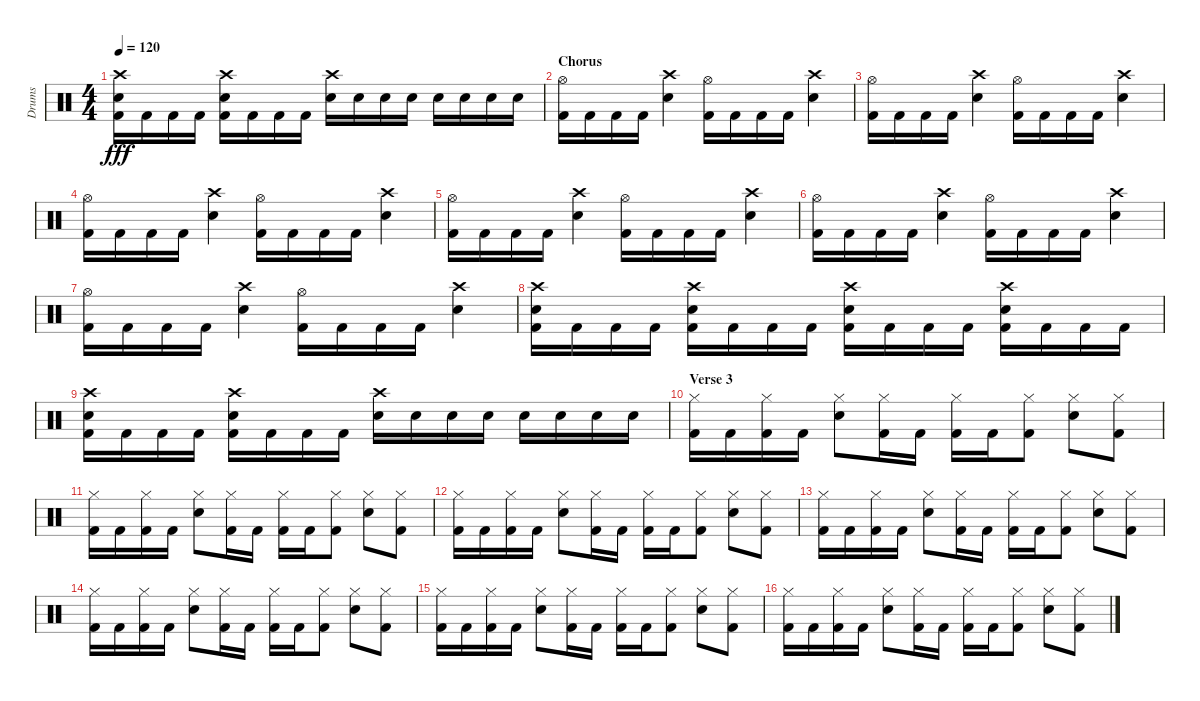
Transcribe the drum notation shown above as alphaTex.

\track ("Drums" "Drums") {instrument percussion}
\staff {score}
\articulation defaults
\ts (4 4)
\tempo 120
\clef neutral
\ks c
("Crash high (hit)" "Electric Snare (hit)" "Kick (hit) 2").16{dy fff} "Kick (hit) 2".16 "Kick (hit) 2".16 "Kick (hit) 2".16 ("Crash high (hit)" "Electric Snare (hit)" "Kick (hit) 2").16 "Kick (hit) 2".16 "Kick (hit) 2".16 "Kick (hit) 2".16 ("Crash high (hit)" "Electric Snare (hit)").16 "Electric Snare (hit)".16 "Electric Snare (hit)".16 "Electric Snare (hit)".16 "Electric Snare (hit)".16 "Electric Snare (hit)".16 "Electric Snare (hit)".16 "Electric Snare (hit)".16 |
\section ("" "Chorus")
("Hi-Hat (open)" "Kick (hit) 2").16 "Kick (hit) 2".16 "Kick (hit) 2".16 "Kick (hit) 2".16 ("Crash high (hit)" "Electric Snare (hit)").4 ("Hi-Hat (open)" "Kick (hit) 2").16 "Kick (hit) 2".16 "Kick (hit) 2".16 "Kick (hit) 2".16 ("Crash high (hit)" "Electric Snare (hit)").4 |
("Hi-Hat (open)" "Kick (hit) 2").16 "Kick (hit) 2".16 "Kick (hit) 2".16 "Kick (hit) 2".16 ("Crash high (hit)" "Electric Snare (hit)").4 ("Hi-Hat (open)" "Kick (hit) 2").16 "Kick (hit) 2".16 "Kick (hit) 2".16 "Kick (hit) 2".16 ("Crash high (hit)" "Electric Snare (hit)").4 |
("Hi-Hat (open)" "Kick (hit) 2").16 "Kick (hit) 2".16 "Kick (hit) 2".16 "Kick (hit) 2".16 ("Crash high (hit)" "Electric Snare (hit)").4 ("Hi-Hat (open)" "Kick (hit) 2").16 "Kick (hit) 2".16 "Kick (hit) 2".16 "Kick (hit) 2".16 ("Crash high (hit)" "Electric Snare (hit)").4 |
("Hi-Hat (open)" "Kick (hit) 2").16 "Kick (hit) 2".16 "Kick (hit) 2".16 "Kick (hit) 2".16 ("Crash high (hit)" "Electric Snare (hit)").4 ("Hi-Hat (open)" "Kick (hit) 2").16 "Kick (hit) 2".16 "Kick (hit) 2".16 "Kick (hit) 2".16 ("Crash high (hit)" "Electric Snare (hit)").4 |
("Hi-Hat (open)" "Kick (hit) 2").16 "Kick (hit) 2".16 "Kick (hit) 2".16 "Kick (hit) 2".16 ("Crash high (hit)" "Electric Snare (hit)").4 ("Hi-Hat (open)" "Kick (hit) 2").16 "Kick (hit) 2".16 "Kick (hit) 2".16 "Kick (hit) 2".16 ("Crash high (hit)" "Electric Snare (hit)").4 |
("Hi-Hat (open)" "Kick (hit) 2").16 "Kick (hit) 2".16 "Kick (hit) 2".16 "Kick (hit) 2".16 ("Crash high (hit)" "Electric Snare (hit)").4 ("Hi-Hat (open)" "Kick (hit) 2").16 "Kick (hit) 2".16 "Kick (hit) 2".16 "Kick (hit) 2".16 ("Crash high (hit)" "Electric Snare (hit)").4 |
("Crash high (hit)" "Electric Snare (hit)" "Kick (hit) 2").16 "Kick (hit) 2".16 "Kick (hit) 2".16 "Kick (hit) 2".16 ("Crash high (hit)" "Electric Snare (hit)" "Kick (hit) 2").16 "Kick (hit) 2".16 "Kick (hit) 2".16 "Kick (hit) 2".16 ("Crash high (hit)" "Electric Snare (hit)" "Kick (hit) 2").16 "Kick (hit) 2".16 "Kick (hit) 2".16 "Kick (hit) 2".16 ("Crash high (hit)" "Electric Snare (hit)" "Kick (hit) 2").16 "Kick (hit) 2".16 "Kick (hit) 2".16 "Kick (hit) 2".16 |
("Crash high (hit)" "Electric Snare (hit)" "Kick (hit) 2").16 "Kick (hit) 2".16 "Kick (hit) 2".16 "Kick (hit) 2".16 ("Crash high (hit)" "Electric Snare (hit)" "Kick (hit) 2").16 "Kick (hit) 2".16 "Kick (hit) 2".16 "Kick (hit) 2".16 ("Crash high (hit)" "Electric Snare (hit)").16 "Electric Snare (hit)".16 "Electric Snare (hit)".16 "Electric Snare (hit)".16 "Electric Snare (hit)".16 "Electric Snare (hit)".16 "Electric Snare (hit)".16 "Electric Snare (hit)".16 |
\section ("" "Verse 3")
("Hi-Hat (closed)" "Kick (hit) 2").16 "Kick (hit) 2".16 ("Hi-Hat (closed)" "Kick (hit) 2").16 "Kick (hit) 2".16 ("Hi-Hat (closed)" "Electric Snare (hit)").8 ("Hi-Hat (closed)" "Kick (hit) 2").16 "Kick (hit) 2".16 ("Hi-Hat (closed)" "Kick (hit) 2").16 "Kick (hit) 2".16 ("Hi-Hat (closed)" "Kick (hit) 2").8 ("Hi-Hat (closed)" "Electric Snare (hit)").8 ("Hi-Hat (closed)" "Kick (hit) 2").8 |
("Hi-Hat (closed)" "Kick (hit) 2").16 "Kick (hit) 2".16 ("Hi-Hat (closed)" "Kick (hit) 2").16 "Kick (hit) 2".16 ("Hi-Hat (closed)" "Electric Snare (hit)").8 ("Hi-Hat (closed)" "Kick (hit) 2").16 "Kick (hit) 2".16 ("Hi-Hat (closed)" "Kick (hit) 2").16 "Kick (hit) 2".16 ("Hi-Hat (closed)" "Kick (hit) 2").8 ("Hi-Hat (closed)" "Electric Snare (hit)").8 ("Hi-Hat (closed)" "Kick (hit) 2").8 |
("Hi-Hat (closed)" "Kick (hit) 2").16 "Kick (hit) 2".16 ("Hi-Hat (closed)" "Kick (hit) 2").16 "Kick (hit) 2".16 ("Hi-Hat (closed)" "Electric Snare (hit)").8 ("Hi-Hat (closed)" "Kick (hit) 2").16 "Kick (hit) 2".16 ("Hi-Hat (closed)" "Kick (hit) 2").16 "Kick (hit) 2".16 ("Hi-Hat (closed)" "Kick (hit) 2").8 ("Hi-Hat (closed)" "Electric Snare (hit)").8 ("Hi-Hat (closed)" "Kick (hit) 2").8 |
("Hi-Hat (closed)" "Kick (hit) 2").16 "Kick (hit) 2".16 ("Hi-Hat (closed)" "Kick (hit) 2").16 "Kick (hit) 2".16 ("Hi-Hat (closed)" "Electric Snare (hit)").8 ("Hi-Hat (closed)" "Kick (hit) 2").16 "Kick (hit) 2".16 ("Hi-Hat (closed)" "Kick (hit) 2").16 "Kick (hit) 2".16 ("Hi-Hat (closed)" "Kick (hit) 2").8 ("Hi-Hat (closed)" "Electric Snare (hit)").8 ("Hi-Hat (closed)" "Kick (hit) 2").8 |
("Hi-Hat (closed)" "Kick (hit) 2").16 "Kick (hit) 2".16 ("Hi-Hat (closed)" "Kick (hit) 2").16 "Kick (hit) 2".16 ("Hi-Hat (closed)" "Electric Snare (hit)").8 ("Hi-Hat (closed)" "Kick (hit) 2").16 "Kick (hit) 2".16 ("Hi-Hat (closed)" "Kick (hit) 2").16 "Kick (hit) 2".16 ("Hi-Hat (closed)" "Kick (hit) 2").8 ("Hi-Hat (closed)" "Electric Snare (hit)").8 ("Hi-Hat (closed)" "Kick (hit) 2").8 |
("Hi-Hat (closed)" "Kick (hit) 2").16 "Kick (hit) 2".16 ("Hi-Hat (closed)" "Kick (hit) 2").16 "Kick (hit) 2".16 ("Hi-Hat (closed)" "Electric Snare (hit)").8 ("Hi-Hat (closed)" "Kick (hit) 2").16 "Kick (hit) 2".16 ("Hi-Hat (closed)" "Kick (hit) 2").16 "Kick (hit) 2".16 ("Hi-Hat (closed)" "Kick (hit) 2").8 ("Hi-Hat (closed)" "Electric Snare (hit)").8 ("Hi-Hat (closed)" "Kick (hit) 2").8 |
("Hi-Hat (closed)" "Kick (hit) 2").16 "Kick (hit) 2".16 ("Hi-Hat (closed)" "Kick (hit) 2").16 "Kick (hit) 2".16 ("Hi-Hat (closed)" "Electric Snare (hit)").8 ("Hi-Hat (closed)" "Kick (hit) 2").16 "Kick (hit) 2".16 ("Hi-Hat (closed)" "Kick (hit) 2").16 "Kick (hit) 2".16 ("Hi-Hat (closed)" "Kick (hit) 2").8 ("Hi-Hat (closed)" "Electric Snare (hit)").8 ("Hi-Hat (closed)" "Kick (hit) 2").8
